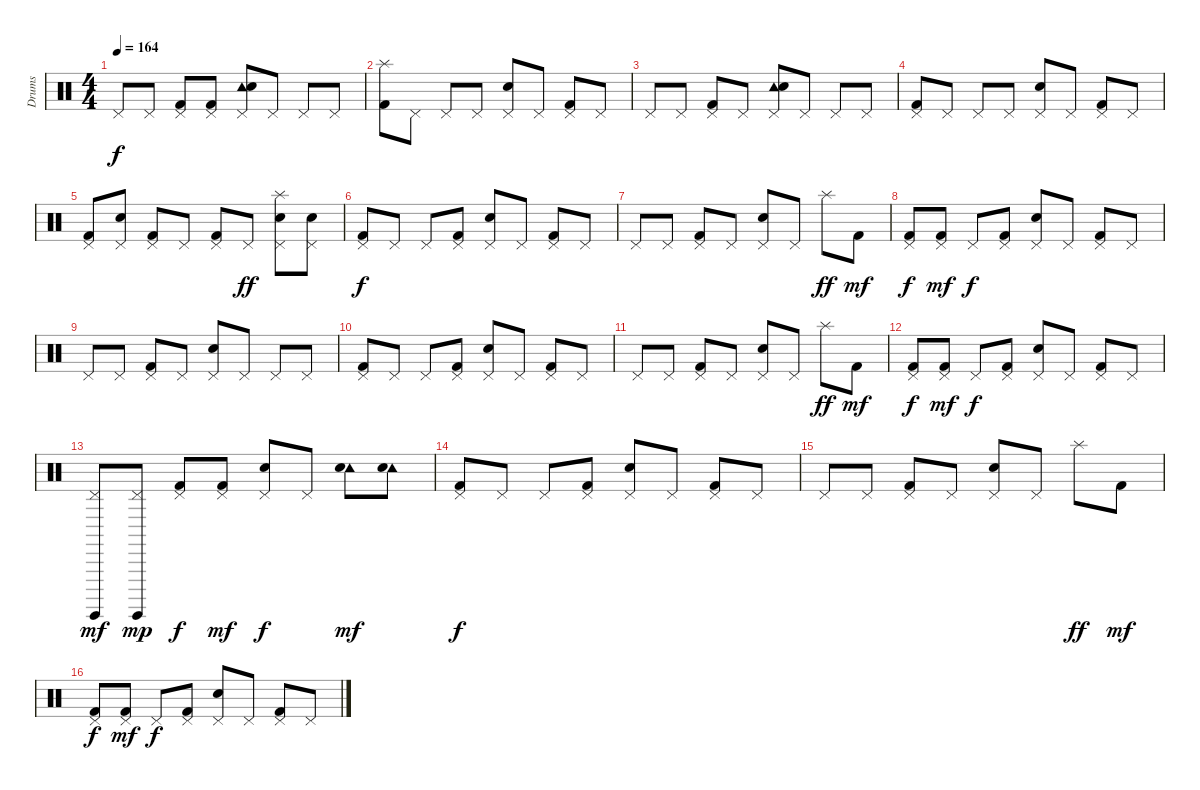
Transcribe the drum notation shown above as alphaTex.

\track ("Drums" "Drums") {instrument percussion}
\staff {score}
\articulation defaults
\ts (4 4)
\tempo 164
\clef neutral
\ks c "Pedal Hi-Hat (hit)".8{dy f} "Pedal Hi-Hat (hit)".8
("Pedal Hi-Hat (hit)" "Kick (hit) 2").8 ("Pedal Hi-Hat (hit)" "Kick (hit) 2").8 ("Tambourine (hit)" "Pedal Hi-Hat (hit)" "Snare (hit) 2").8 "Pedal Hi-Hat (hit)".8 "Pedal Hi-Hat (hit)".8 "Pedal Hi-Hat (hit)".8 |
("Splash (hit)" "Kick (hit) 2").8 "Pedal Hi-Hat (hit)".8 "Pedal Hi-Hat (hit)".8 "Pedal Hi-Hat (hit)".8 ("Pedal Hi-Hat (hit)" "Snare (hit) 2").8 "Pedal Hi-Hat (hit)".8 ("Pedal Hi-Hat (hit)" "Kick (hit) 2").8 "Pedal Hi-Hat (hit)".8 |
"Pedal Hi-Hat (hit)".8 "Pedal Hi-Hat (hit)".8 ("Pedal Hi-Hat (hit)" "Kick (hit) 2").8 "Pedal Hi-Hat (hit)".8 ("Tambourine (hit)" "Pedal Hi-Hat (hit)" "Snare (hit) 2").8 "Pedal Hi-Hat (hit)".8 "Pedal Hi-Hat (hit)".8 "Pedal Hi-Hat (hit)".8 |
("Pedal Hi-Hat (hit)" "Kick (hit) 2").8 "Pedal Hi-Hat (hit)".8 "Pedal Hi-Hat (hit)".8 "Pedal Hi-Hat (hit)".8 ("Pedal Hi-Hat (hit)" "Snare (hit) 2").8 "Pedal Hi-Hat (hit)".8 ("Pedal Hi-Hat (hit)" "Kick (hit) 2").8 "Pedal Hi-Hat (hit)".8 |
("Pedal Hi-Hat (hit)" "Kick (hit) 2").8 ("Pedal Hi-Hat (hit)" "Snare (hit) 2").8 ("Pedal Hi-Hat (hit)" "Kick (hit) 2").8 "Pedal Hi-Hat (hit)".8 ("Pedal Hi-Hat (hit)" "Kick (hit) 2").8 "Pedal Hi-Hat (hit)".8{dy ff} ("Splash (hit)" "Pedal Hi-Hat (hit)" "Snare (hit) 2").8 ("Pedal Hi-Hat (hit)" "Snare (hit) 2").8 |
("Pedal Hi-Hat (hit)" "Kick (hit) 2").8{dy f} "Pedal Hi-Hat (hit)".8 "Pedal Hi-Hat (hit)".8 ("Pedal Hi-Hat (hit)" "Kick (hit) 2").8 ("Pedal Hi-Hat (hit)" "Snare (hit) 2").8 "Pedal Hi-Hat (hit)".8 ("Pedal Hi-Hat (hit)" "Kick (hit) 2").8 "Pedal Hi-Hat (hit)".8 |
"Pedal Hi-Hat (hit)".8 "Pedal Hi-Hat (hit)".8 ("Pedal Hi-Hat (hit)" "Kick (hit) 2").8 "Pedal Hi-Hat (hit)".8 ("Pedal Hi-Hat (hit)" "Snare (hit) 2").8 "Pedal Hi-Hat (hit)".8 "Splash (hit)".8{dy ff} "Kick (hit) 2".8{dy mf} |
("Pedal Hi-Hat (hit)" "Kick (hit) 2").8{dy f} ("Pedal Hi-Hat (hit)" "Kick (hit) 2").8{dy mf} "Pedal Hi-Hat (hit)".8{dy f} ("Pedal Hi-Hat (hit)" "Kick (hit) 2").8 ("Pedal Hi-Hat (hit)" "Snare (hit) 2").8 "Pedal Hi-Hat (hit)".8 ("Pedal Hi-Hat (hit)" "Kick (hit) 2").8 "Pedal Hi-Hat (hit)".8 |
"Pedal Hi-Hat (hit)".8 "Pedal Hi-Hat (hit)".8 ("Pedal Hi-Hat (hit)" "Kick (hit) 2").8 "Pedal Hi-Hat (hit)".8 ("Pedal Hi-Hat (hit)" "Snare (hit) 2").8 "Pedal Hi-Hat (hit)".8 "Pedal Hi-Hat (hit)".8 "Pedal Hi-Hat (hit)".8 |
("Pedal Hi-Hat (hit)" "Kick (hit) 2").8 "Pedal Hi-Hat (hit)".8 "Pedal Hi-Hat (hit)".8 ("Pedal Hi-Hat (hit)" "Kick (hit) 2").8 ("Pedal Hi-Hat (hit)" "Snare (hit) 2").8 "Pedal Hi-Hat (hit)".8 ("Pedal Hi-Hat (hit)" "Kick (hit) 2").8 "Pedal Hi-Hat (hit)".8 |
"Pedal Hi-Hat (hit)".8 "Pedal Hi-Hat (hit)".8 ("Pedal Hi-Hat (hit)" "Kick (hit) 2").8 "Pedal Hi-Hat (hit)".8 ("Pedal Hi-Hat (hit)" "Snare (hit) 2").8 "Pedal Hi-Hat (hit)".8 "Splash (hit)".8{dy ff} "Kick (hit) 2".8{dy mf} |
("Pedal Hi-Hat (hit)" "Kick (hit) 2").8{dy f} ("Pedal Hi-Hat (hit)" "Kick (hit) 2").8{dy mf} "Pedal Hi-Hat (hit)".8{dy f} ("Pedal Hi-Hat (hit)" "Kick (hit) 2").8 ("Pedal Hi-Hat (hit)" "Snare (hit) 2").8 "Pedal Hi-Hat (hit)".8 ("Pedal Hi-Hat (hit)" "Kick (hit) 2").8 "Pedal Hi-Hat (hit)".8 |
("Pedal Hi-Hat (hit)" "Surdo (hit)").8{dy mf} ("Pedal Hi-Hat (hit)" "Surdo (hit)").8{dy mp} ("Pedal Hi-Hat (hit)" "Kick (hit) 2").8{dy f} ("Pedal Hi-Hat (hit)" "Kick (hit) 2").8{dy mf} ("Pedal Hi-Hat (hit)" "Snare (hit) 2").8{dy f} "Pedal Hi-Hat (hit)".8 ("Tambourine (hit)" "Snare (hit) 2").8{dy mf} ("Tambourine (hit)" "Snare (hit) 2").8 |
("Pedal Hi-Hat (hit)" "Kick (hit) 2").8{dy f} "Pedal Hi-Hat (hit)".8 "Pedal Hi-Hat (hit)".8 ("Pedal Hi-Hat (hit)" "Kick (hit) 2").8 ("Pedal Hi-Hat (hit)" "Snare (hit) 2").8 "Pedal Hi-Hat (hit)".8 ("Pedal Hi-Hat (hit)" "Kick (hit) 2").8 "Pedal Hi-Hat (hit)".8 |
"Pedal Hi-Hat (hit)".8 "Pedal Hi-Hat (hit)".8 ("Pedal Hi-Hat (hit)" "Kick (hit) 2").8 "Pedal Hi-Hat (hit)".8 ("Pedal Hi-Hat (hit)" "Snare (hit) 2").8 "Pedal Hi-Hat (hit)".8 "Splash (hit)".8{dy ff} "Kick (hit) 2".8{dy mf} |
("Pedal Hi-Hat (hit)" "Kick (hit) 2").8{dy f} ("Pedal Hi-Hat (hit)" "Kick (hit) 2").8{dy mf} "Pedal Hi-Hat (hit)".8{dy f} ("Pedal Hi-Hat (hit)" "Kick (hit) 2").8 ("Pedal Hi-Hat (hit)" "Snare (hit) 2").8 "Pedal Hi-Hat (hit)".8 ("Pedal Hi-Hat (hit)" "Kick (hit) 2").8 "Pedal Hi-Hat (hit)".8
